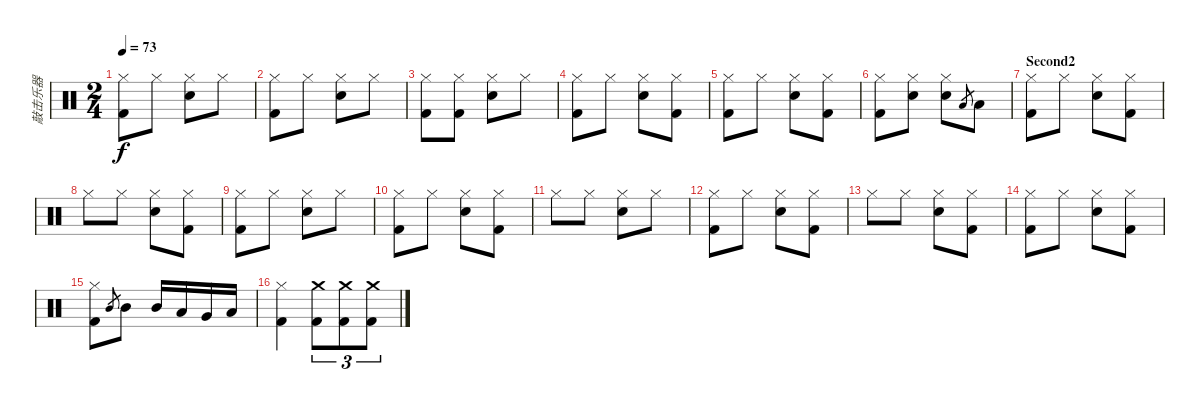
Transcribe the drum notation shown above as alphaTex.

\track ("敲击乐器" "敲击乐器") {instrument percussion}
\staff {score}
\articulation defaults
\ts (2 4)
\tempo 73
\clef neutral
\ks c
("Hi-Hat (closed)" "Kick (hit) 2").8{dy f} "Hi-Hat (closed)".8 ("Hi-Hat (closed)" "Electric Snare (hit)").8 "Hi-Hat (closed)".8 |
("Hi-Hat (closed)" "Kick (hit) 2").8 "Hi-Hat (closed)".8 ("Hi-Hat (closed)" "Electric Snare (hit)").8 "Hi-Hat (closed)".8 |
("Hi-Hat (closed)" "Kick (hit) 2").8 ("Hi-Hat (closed)" "Kick (hit) 2").8 ("Hi-Hat (closed)" "Electric Snare (hit)").8 "Hi-Hat (closed)".8 |
("Hi-Hat (closed)" "Kick (hit) 2").8 "Hi-Hat (closed)".8 ("Hi-Hat (closed)" "Electric Snare (hit)").8 ("Hi-Hat (closed)" "Kick (hit) 2").8 |
("Hi-Hat (closed)" "Kick (hit) 2").8 "Hi-Hat (closed)".8 ("Hi-Hat (closed)" "Electric Snare (hit)").8 ("Hi-Hat (closed)" "Kick (hit) 2").8 |
("Hi-Hat (closed)" "Kick (hit) 2").8 ("Hi-Hat (closed)" "Electric Snare (hit)").8 ("Hi-Hat (closed)" "Electric Snare (hit)").8 "Low Tom (hit)".8{gr} "Low Tom (hit)".8 |
\section ("" "Second2")
("Hi-Hat (closed)" "Kick (hit) 2").8 "Hi-Hat (closed)".8 ("Hi-Hat (closed)" "Electric Snare (hit)").8 ("Hi-Hat (closed)" "Kick (hit) 2").8 |
"Hi-Hat (closed)".8 "Hi-Hat (closed)".8 ("Hi-Hat (closed)" "Electric Snare (hit)").8 ("Hi-Hat (closed)" "Kick (hit) 2").8 |
("Hi-Hat (closed)" "Kick (hit) 2").8 "Hi-Hat (closed)".8 ("Hi-Hat (closed)" "Electric Snare (hit)").8 "Hi-Hat (closed)".8 |
("Hi-Hat (closed)" "Kick (hit) 2").8 "Hi-Hat (closed)".8 ("Hi-Hat (closed)" "Electric Snare (hit)").8 ("Hi-Hat (closed)" "Kick (hit) 2").8 |
"Hi-Hat (closed)".8 "Hi-Hat (closed)".8 ("Hi-Hat (closed)" "Electric Snare (hit)").8 "Hi-Hat (closed)".8 |
("Hi-Hat (closed)" "Kick (hit) 2").8 "Hi-Hat (closed)".8 ("Hi-Hat (closed)" "Electric Snare (hit)").8 ("Hi-Hat (closed)" "Kick (hit) 2").8 |
"Hi-Hat (closed)".8 "Hi-Hat (closed)".8 ("Hi-Hat (closed)" "Electric Snare (hit)").8 ("Hi-Hat (closed)" "Kick (hit) 2").8 |
("Hi-Hat (closed)" "Kick (hit) 2").8 "Hi-Hat (closed)".8 ("Hi-Hat (closed)" "Electric Snare (hit)").8 ("Hi-Hat (closed)" "Kick (hit) 2").8 |
("Hi-Hat (closed)" "Kick (hit) 2").8 "Mid Tom (hit)".8{gr} "Mid Tom (hit)".8 "Mid Tom (hit)".16 "Low Tom (hit)".16 "Very Low Tom (hit)".16 "Low Floor Tom (hit)".16 |
("Hi-Hat (closed)" "Kick (hit) 2").4 ("Crash medium (hit)" "Kick (hit) 2").8{tu (3 2)} ("Crash medium (hit)" "Kick (hit) 2").8{tu (3 2)} ("Crash medium (hit)" "Kick (hit) 2").8{tu (3 2)}
